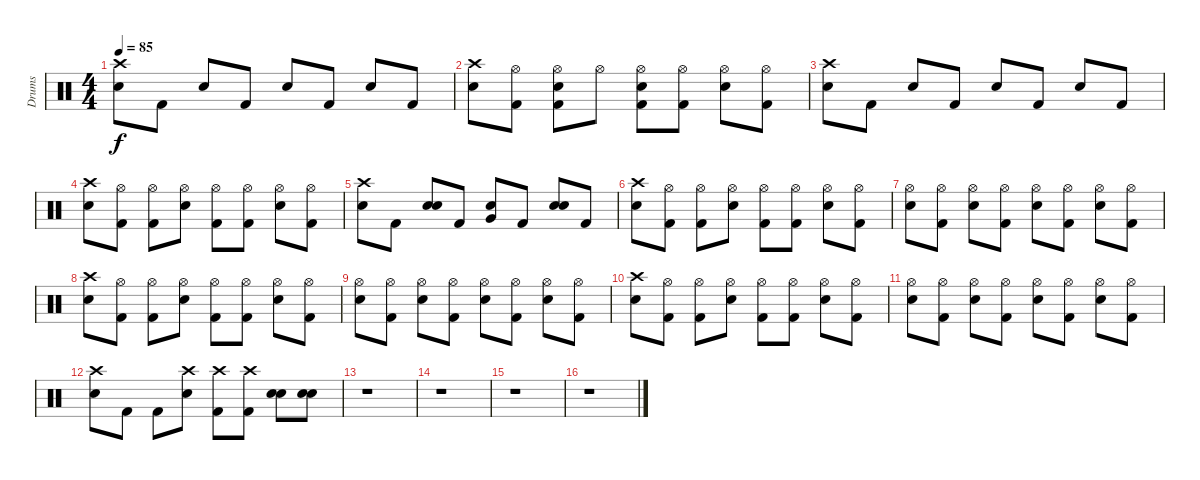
\track ("Drums" "Drums") {instrument percussion}
\staff {score}
\articulation defaults
\ts (4 4)
\tempo 85
\clef neutral
\ks c
("Crash high (hit)" "Electric Snare (hit)").8{dy f} "Kick (hit) 2".8 "Electric Snare (hit)".8 "Kick (hit) 2".8 "Electric Snare (hit)".8 "Kick (hit) 2".8 "Electric Snare (hit)".8 "Kick (hit) 2".8 |
("Electric Snare (hit)" "Crash high (hit)").8 ("Hi-Hat (open)" "Kick (hit) 2").8 ("Electric Snare (hit)" "Hi-Hat (open)" "Kick (hit) 2").8 "Hi-Hat (open)".8 ("Electric Snare (hit)" "Hi-Hat (open)" "Kick (hit) 2").8 ("Hi-Hat (open)" "Kick (hit) 2").8 ("Electric Snare (hit)" "Hi-Hat (open)").8 ("Hi-Hat (open)" "Kick (hit) 2").8 |
("Crash high (hit)" "Electric Snare (hit)").8 "Kick (hit) 2".8 "Electric Snare (hit)".8 "Kick (hit) 2".8 "Electric Snare (hit)".8 "Kick (hit) 2".8 "Electric Snare (hit)".8 "Kick (hit) 2".8 |
("Crash high (hit)" "Electric Snare (hit)").8 ("Hi-Hat (open)" "Kick (hit) 2").8 ("Hi-Hat (open)" "Kick (hit) 2").8 ("Hi-Hat (open)" "Electric Snare (hit)").8 ("Hi-Hat (open)" "Kick (hit) 2").8 ("Hi-Hat (open)" "Kick (hit) 2").8 ("Hi-Hat (open)" "Electric Snare (hit)").8 ("Hi-Hat (open)" "Kick (hit) 2").8 |
("Crash high (hit)" "Electric Snare (hit)").8 "Kick (hit) 2".8 ("Snare (hit) 2" "Electric Snare (hit)").8 "Kick (hit) 2".8 ("Electric Snare (hit)" "Very Low Tom (hit)").8 "Kick (hit) 2".8 ("Electric Snare (hit)" "Snare (hit) 2").8 "Kick (hit) 2".8 |
("Crash high (hit)" "Electric Snare (hit)").8 ("Hi-Hat (open)" "Kick (hit) 2").8 ("Hi-Hat (open)" "Kick (hit) 2").8 ("Hi-Hat (open)" "Electric Snare (hit)").8 ("Hi-Hat (open)" "Kick (hit) 2").8 ("Hi-Hat (open)" "Kick (hit) 2").8 ("Hi-Hat (open)" "Electric Snare (hit)").8 ("Hi-Hat (open)" "Kick (hit) 2").8 |
("Electric Snare (hit)" "Hi-Hat (open)").8 ("Hi-Hat (open)" "Kick (hit) 2").8 ("Hi-Hat (open)" "Electric Snare (hit)").8 ("Hi-Hat (open)" "Kick (hit) 2").8 ("Hi-Hat (open)" "Electric Snare (hit)").8 ("Hi-Hat (open)" "Kick (hit) 2").8 ("Hi-Hat (open)" "Electric Snare (hit)").8 ("Hi-Hat (open)" "Kick (hit) 2").8 |
("Crash high (hit)" "Electric Snare (hit)").8 ("Hi-Hat (open)" "Kick (hit) 2").8 ("Hi-Hat (open)" "Kick (hit) 2").8 ("Hi-Hat (open)" "Electric Snare (hit)").8 ("Hi-Hat (open)" "Kick (hit) 2").8 ("Hi-Hat (open)" "Kick (hit) 2").8 ("Hi-Hat (open)" "Electric Snare (hit)").8 ("Hi-Hat (open)" "Kick (hit) 2").8 |
("Electric Snare (hit)" "Hi-Hat (open)").8 ("Hi-Hat (open)" "Kick (hit) 2").8 ("Hi-Hat (open)" "Electric Snare (hit)").8 ("Hi-Hat (open)" "Kick (hit) 2").8 ("Hi-Hat (open)" "Electric Snare (hit)").8 ("Hi-Hat (open)" "Kick (hit) 2").8 ("Hi-Hat (open)" "Electric Snare (hit)").8 ("Hi-Hat (open)" "Kick (hit) 2").8 |
("Electric Snare (hit)" "Crash high (hit)").8 ("Hi-Hat (open)" "Kick (hit) 2").8 ("Hi-Hat (open)" "Kick (hit) 2").8 ("Hi-Hat (open)" "Electric Snare (hit)").8 ("Hi-Hat (open)" "Kick (hit) 2").8 ("Hi-Hat (open)" "Kick (hit) 2").8 ("Hi-Hat (open)" "Electric Snare (hit)").8 ("Hi-Hat (open)" "Kick (hit) 2").8 |
("Electric Snare (hit)" "Hi-Hat (open)").8 ("Hi-Hat (open)" "Kick (hit) 2").8 ("Hi-Hat (open)" "Electric Snare (hit)").8 ("Hi-Hat (open)" "Kick (hit) 2").8 ("Hi-Hat (open)" "Electric Snare (hit)").8 ("Hi-Hat (open)" "Kick (hit) 2").8 ("Hi-Hat (open)" "Electric Snare (hit)").8 ("Hi-Hat (open)" "Kick (hit) 2").8 |
("Crash high (hit)" "Electric Snare (hit)").8 "Kick (hit) 2".8 "Kick (hit) 2".8 ("Crash high (hit)" "Electric Snare (hit)").8 ("Crash high (hit)" "Kick (hit) 2").8 ("Crash high (hit)" "Kick (hit) 2").8 ("Electric Snare (hit)" "Snare (hit) 2").8 ("Electric Snare (hit)" "Snare (hit) 2").8 |
r.1 |
r.1 |
r.1 |
r.1
